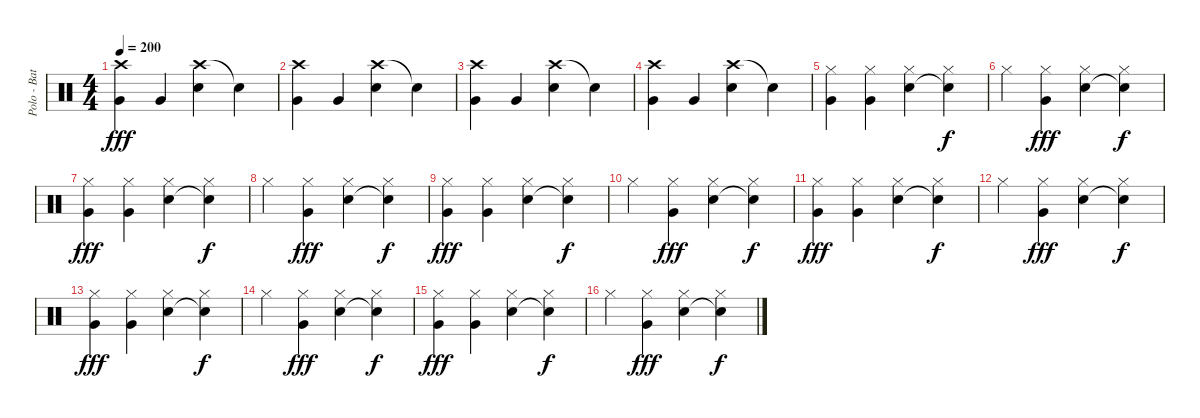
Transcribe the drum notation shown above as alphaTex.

\track ("Polo - Batería" "Polo - Bat") {instrument percussion}
\staff {score}
\articulation defaults
\ts (4 4)
\tempo 200
\clef neutral
\ks c
("Crash high (hit)" "Very Low Tom (hit)").4{dy fff} "Very Low Tom (hit)".4 ("Crash high (hit)" "Electric Snare (hit)").4 "Snare (hit)"{t}.4 |
("Crash high (hit)" "Very Low Tom (hit)").4 "Very Low Tom (hit)".4 ("Crash high (hit)" "Electric Snare (hit)").4 "Snare (hit)"{t}.4 |
("Crash high (hit)" "Very Low Tom (hit)").4 "Very Low Tom (hit)".4 ("Crash high (hit)" "Electric Snare (hit)").4 "Snare (hit)"{t}.4 |
("Crash high (hit)" "Very Low Tom (hit)").4 "Very Low Tom (hit)".4 ("Crash high (hit)" "Electric Snare (hit)").4 "Snare (hit)"{t}.4 |
("Hi-Hat (closed)" "Very Low Tom (hit)").4 ("Hi-Hat (closed)" "Very Low Tom (hit)").4 ("Hi-Hat (closed)" "Electric Snare (hit)").4 ("Hi-Hat (closed)" "Snare (hit)"{t}).4{dy f} |
"Hi-Hat (closed)".4 ("Hi-Hat (closed)" "Very Low Tom (hit)").4{dy fff} ("Hi-Hat (closed)" "Electric Snare (hit)").4 ("Hi-Hat (closed)" "Snare (hit)"{t}).4{dy f} |
("Hi-Hat (closed)" "Very Low Tom (hit)").4{dy fff} ("Hi-Hat (closed)" "Very Low Tom (hit)").4 ("Hi-Hat (closed)" "Electric Snare (hit)").4 ("Hi-Hat (closed)" "Snare (hit)"{t}).4{dy f} |
"Hi-Hat (closed)".4 ("Hi-Hat (closed)" "Very Low Tom (hit)").4{dy fff} ("Hi-Hat (closed)" "Electric Snare (hit)").4 ("Hi-Hat (closed)" "Snare (hit)"{t}).4{dy f} |
("Hi-Hat (closed)" "Very Low Tom (hit)").4{dy fff} ("Hi-Hat (closed)" "Very Low Tom (hit)").4 ("Hi-Hat (closed)" "Electric Snare (hit)").4 ("Hi-Hat (closed)" "Snare (hit)"{t}).4{dy f} |
"Hi-Hat (closed)".4 ("Hi-Hat (closed)" "Very Low Tom (hit)").4{dy fff} ("Hi-Hat (closed)" "Electric Snare (hit)").4 ("Hi-Hat (closed)" "Snare (hit)"{t}).4{dy f} |
("Hi-Hat (closed)" "Very Low Tom (hit)").4{dy fff} ("Hi-Hat (closed)" "Very Low Tom (hit)").4 ("Hi-Hat (closed)" "Electric Snare (hit)").4 ("Hi-Hat (closed)" "Snare (hit)"{t}).4{dy f} |
"Hi-Hat (closed)".4 ("Hi-Hat (closed)" "Very Low Tom (hit)").4{dy fff} ("Hi-Hat (closed)" "Electric Snare (hit)").4 ("Hi-Hat (closed)" "Snare (hit)"{t}).4{dy f} |
("Hi-Hat (closed)" "Very Low Tom (hit)").4{dy fff} ("Hi-Hat (closed)" "Very Low Tom (hit)").4 ("Hi-Hat (closed)" "Electric Snare (hit)").4 ("Hi-Hat (closed)" "Snare (hit)"{t}).4{dy f} |
"Hi-Hat (closed)".4 ("Hi-Hat (closed)" "Very Low Tom (hit)").4{dy fff} ("Hi-Hat (closed)" "Electric Snare (hit)").4 ("Hi-Hat (closed)" "Snare (hit)"{t}).4{dy f} |
("Hi-Hat (closed)" "Very Low Tom (hit)").4{dy fff} ("Hi-Hat (closed)" "Very Low Tom (hit)").4 ("Hi-Hat (closed)" "Electric Snare (hit)").4 ("Hi-Hat (closed)" "Snare (hit)"{t}).4{dy f} |
"Hi-Hat (closed)".4 ("Hi-Hat (closed)" "Very Low Tom (hit)").4{dy fff} ("Hi-Hat (closed)" "Electric Snare (hit)").4 ("Hi-Hat (closed)" "Snare (hit)"{t}).4{dy f}
